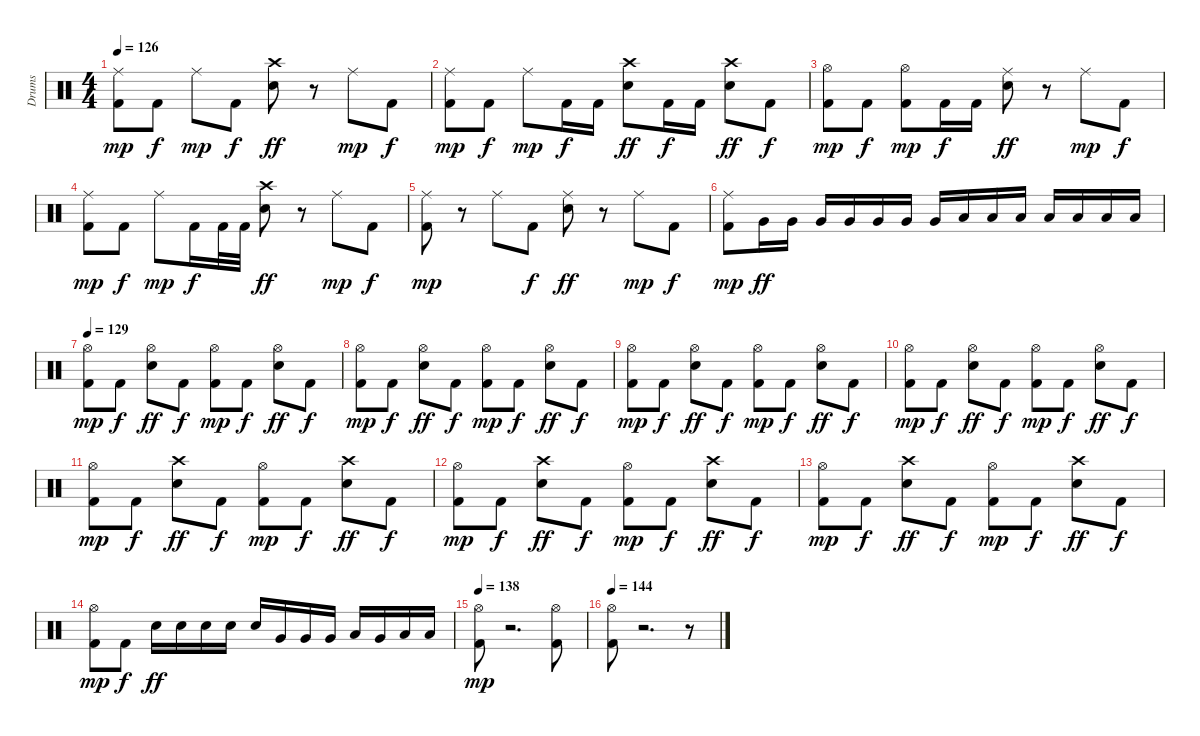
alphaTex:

\track ("Drums" "Drums") {instrument percussion}
\staff {score}
\articulation defaults
\ts (4 4)
\tempo 126
\clef neutral
\ks c
("Ride (middle)" "Kick (hit) 2").8{dy mp} "Kick (hit) 2".8{dy f} "Ride (middle)".8{dy mp} "Kick (hit) 2".8{dy f} ("Crash high (hit)" "Electric Snare (hit)").8{dy ff} r.8 "Ride (middle)".8{dy mp} "Kick (hit) 2".8{dy f} |
("Ride (middle)" "Kick (hit) 2").8{dy mp} "Kick (hit) 2".8{dy f} "Ride (middle)".8{dy mp} "Kick (hit) 2".16{dy f} "Kick (hit) 2".16 ("Crash high (hit)" "Electric Snare (hit)").8{dy ff} "Kick (hit) 2".16{dy f} "Kick (hit) 2".16 ("Crash high (hit)" "Electric Snare (hit)").8{dy ff} "Kick (hit) 2".8{dy f} |
("Hi-Hat (open)" "Kick (hit) 2").8{dy mp} "Kick (hit) 2".8{dy f} ("Hi-Hat (open)" "Kick (hit) 2").8{dy mp} "Kick (hit) 2".16{dy f} "Kick (hit) 2".16 ("Ride (middle)" "Electric Snare (hit)").8{dy ff} r.8 "Ride (middle)".8{dy mp} "Kick (hit) 2".8{dy f} |
("Ride (middle)" "Kick (hit) 2").8{dy mp} "Kick (hit) 2".8{dy f} "Ride (middle)".8{dy mp} "Kick (hit) 2".16{dy f} "Kick (hit) 2".32 "Kick (hit) 2".32 ("Crash high (hit)" "Electric Snare (hit)").8{dy ff} r.8 "Ride (middle)".8{dy mp} "Kick (hit) 2".8{dy f} |
("Ride (middle)" "Kick (hit) 2").8{dy mp} r.8 "Ride (middle)".8 "Kick (hit) 2".8{dy f} ("Ride (middle)" "Electric Snare (hit)").8{dy ff} r.8 "Ride (middle)".8{dy mp} "Kick (hit) 2".8{dy f} |
("Ride (middle)" "Kick (hit) 2").8{dy mp} "Very Low Tom (hit)".16{dy ff} "Very Low Tom (hit)".16 "Very Low Tom (hit)".16 "Very Low Tom (hit)".16 "Very Low Tom (hit)".16 "Very Low Tom (hit)".16 "Very Low Tom (hit)".16 "Low Floor Tom (hit)".16 "Low Floor Tom (hit)".16 "Low Floor Tom (hit)".16 "Low Floor Tom (hit)".16 "Low Floor Tom (hit)".16 "Low Floor Tom (hit)".16 "Low Floor Tom (hit)".16 |
\tempo 129
("Hi-Hat (open)" "Kick (hit) 2").8{dy mp} "Kick (hit) 2".8{dy f} ("Hi-Hat (open)" "Electric Snare (hit)").8{dy ff} "Kick (hit) 2".8{dy f} ("Hi-Hat (open)" "Kick (hit) 2").8{dy mp} "Kick (hit) 2".8{dy f} ("Hi-Hat (open)" "Electric Snare (hit)").8{dy ff} "Kick (hit) 2".8{dy f} |
("Hi-Hat (open)" "Kick (hit) 2").8{dy mp} "Kick (hit) 2".8{dy f} ("Hi-Hat (open)" "Electric Snare (hit)").8{dy ff} "Kick (hit) 2".8{dy f} ("Hi-Hat (open)" "Kick (hit) 2").8{dy mp} "Kick (hit) 2".8{dy f} ("Hi-Hat (open)" "Electric Snare (hit)").8{dy ff} "Kick (hit) 2".8{dy f} |
("Hi-Hat (open)" "Kick (hit) 2").8{dy mp} "Kick (hit) 2".8{dy f} ("Hi-Hat (open)" "Electric Snare (hit)").8{dy ff} "Kick (hit) 2".8{dy f} ("Hi-Hat (open)" "Kick (hit) 2").8{dy mp} "Kick (hit) 2".8{dy f} ("Hi-Hat (open)" "Electric Snare (hit)").8{dy ff} "Kick (hit) 2".8{dy f} |
("Hi-Hat (open)" "Kick (hit) 2").8{dy mp} "Kick (hit) 2".8{dy f} ("Hi-Hat (open)" "Electric Snare (hit)").8{dy ff} "Kick (hit) 2".8{dy f} ("Hi-Hat (open)" "Kick (hit) 2").8{dy mp} "Kick (hit) 2".8{dy f} ("Hi-Hat (open)" "Electric Snare (hit)").8{dy ff} "Kick (hit) 2".8{dy f} |
("Hi-Hat (open)" "Kick (hit) 2").8{dy mp} "Kick (hit) 2".8{dy f} ("Crash high (hit)" "Electric Snare (hit)").8{dy ff} "Kick (hit) 2".8{dy f} ("Hi-Hat (open)" "Kick (hit) 2").8{dy mp} "Kick (hit) 2".8{dy f} ("Crash high (hit)" "Electric Snare (hit)").8{dy ff} "Kick (hit) 2".8{dy f} |
("Hi-Hat (open)" "Kick (hit) 2").8{dy mp} "Kick (hit) 2".8{dy f} ("Crash high (hit)" "Electric Snare (hit)").8{dy ff} "Kick (hit) 2".8{dy f} ("Hi-Hat (open)" "Kick (hit) 2").8{dy mp} "Kick (hit) 2".8{dy f} ("Crash high (hit)" "Electric Snare (hit)").8{dy ff} "Kick (hit) 2".8{dy f} |
("Hi-Hat (open)" "Kick (hit) 2").8{dy mp} "Kick (hit) 2".8{dy f} ("Crash high (hit)" "Electric Snare (hit)").8{dy ff} "Kick (hit) 2".8{dy f} ("Hi-Hat (open)" "Kick (hit) 2").8{dy mp} "Kick (hit) 2".8{dy f} ("Crash high (hit)" "Electric Snare (hit)").8{dy ff} "Kick (hit) 2".8{dy f} |
("Hi-Hat (open)" "Kick (hit) 2").8{dy mp} "Kick (hit) 2".8{dy f} "Electric Snare (hit)".16{dy ff} "Electric Snare (hit)".16 "Electric Snare (hit)".16 "Electric Snare (hit)".16 "Electric Snare (hit)".16 "Very Low Tom (hit)".16 "Very Low Tom (hit)".16 "Very Low Tom (hit)".16 "Low Floor Tom (hit)".16 "Very Low Tom (hit)".16 "Low Floor Tom (hit)".16 "Low Floor Tom (hit)".16 |
\tempo 138
("Hi-Hat (open)" "Kick (hit) 2").8{dy mp} r.2{d volume 0} ("Hi-Hat (open)" "Kick (hit) 2").8{volume 16} |
\tempo 144
("Hi-Hat (open)" "Kick (hit) 2").8 r.2{d volume 0} r.8
